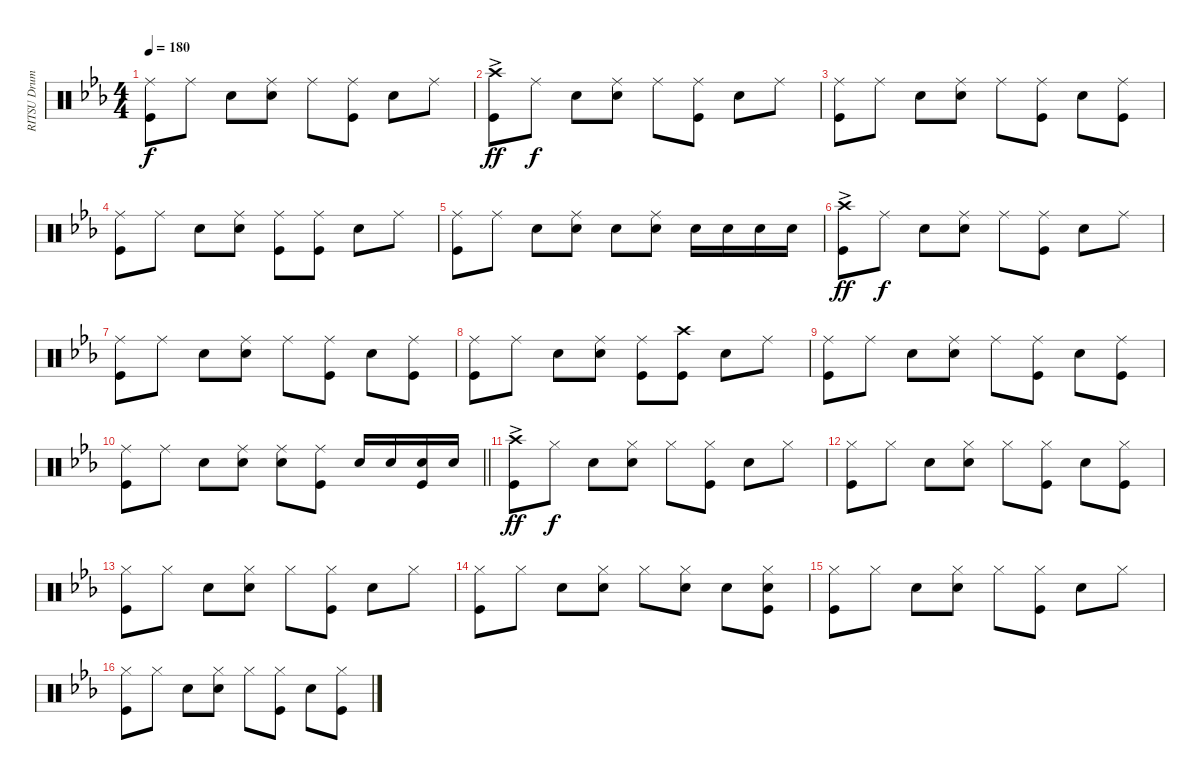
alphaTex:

\track ("RITSU Drums" "RITSU Drum") {instrument percussion}
\staff {score}
\articulation defaults
\ts (4 4)
\tempo 180
\clef neutral
\ks cminor
("Ride (middle)" "Kick (hit)").8{dy f} "Ride (middle)".8 "Snare (hit) 2".8 ("Snare (hit) 2" "Ride (middle)").8 "Ride (middle)".8 ("Ride (middle)" "Kick (hit)").8 "Snare (hit) 2".8 "Ride (middle)".8 |
("Crash high (hit)"{ac} "Kick (hit)").8{dy ff} "Ride (middle)".8{dy f} "Snare (hit) 2".8 ("Snare (hit) 2" "Ride (middle)").8 "Ride (middle)".8 ("Ride (middle)" "Kick (hit)").8 "Snare (hit) 2".8 "Ride (middle)".8 |
("Ride (middle)" "Kick (hit)").8 "Ride (middle)".8 "Snare (hit) 2".8 ("Snare (hit) 2" "Ride (middle)").8 "Ride (middle)".8 ("Ride (middle)" "Kick (hit)").8 "Snare (hit) 2".8 ("Ride (middle)" "Kick (hit)").8 |
("Kick (hit)" "Ride (middle)").8 "Ride (middle)".8 "Snare (hit) 2".8 ("Snare (hit) 2" "Ride (middle)").8 ("Ride (middle)" "Kick (hit)").8 ("Ride (middle)" "Kick (hit)").8 "Snare (hit) 2".8 "Ride (middle)".8 |
("Kick (hit)" "Ride (middle)").8 "Ride (middle)".8 "Snare (hit) 2".8 ("Snare (hit) 2" "Ride (middle)").8 "Snare (hit) 2".8 ("Snare (hit) 2" "Ride (middle)").8 "Snare (hit) 2".16 "Snare (hit) 2".16 "Snare (hit) 2".16 "Snare (hit) 2".16 |
("Crash high (hit)"{ac} "Kick (hit)").8{dy ff} "Ride (middle)".8{dy f} "Snare (hit) 2".8 ("Snare (hit) 2" "Ride (middle)").8 "Ride (middle)".8 ("Ride (middle)" "Kick (hit)").8 "Snare (hit) 2".8 "Ride (middle)".8 |
("Ride (middle)" "Kick (hit)").8 "Ride (middle)".8 "Snare (hit) 2".8 ("Ride (middle)" "Snare (hit) 2").8 "Ride (middle)".8 ("Ride (middle)" "Kick (hit)").8 "Snare (hit) 2".8 ("Ride (middle)" "Kick (hit)").8 |
("Ride (middle)" "Kick (hit)").8 "Ride (middle)".8 "Snare (hit) 2".8 ("Snare (hit) 2" "Ride (middle)").8 ("Ride (middle)" "Kick (hit)").8 ("Kick (hit)" "Crash high (hit)").8 "Snare (hit) 2".8 "Ride (middle)".8 |
("Ride (middle)" "Kick (hit)").8 "Ride (middle)".8 "Snare (hit) 2".8 ("Ride (middle)" "Snare (hit) 2").8 "Ride (middle)".8 ("Ride (middle)" "Kick (hit)").8 "Snare (hit) 2".8 ("Ride (middle)" "Kick (hit)").8 |
\barLineRight lightlight
("Ride (middle)" "Kick (hit)").8 "Ride (middle)".8 "Snare (hit) 2".8 ("Snare (hit) 2" "Ride (middle)").8 ("Ride (middle)" "Snare (hit) 2").8 ("Ride (middle)" "Kick (hit)").8 "Snare (hit) 2".16 "Snare (hit) 2".16 ("Snare (hit) 2" "Kick (hit)").16 "Snare (hit) 2".16 |
("Crash high (hit)"{ac} "Kick (hit)").8{dy ff} "Hi-Hat (closed)".8{dy f} "Snare (hit) 2".8 ("Snare (hit) 2" "Hi-Hat (closed)").8 "Hi-Hat (closed)".8 ("Hi-Hat (closed)" "Kick (hit)").8 "Snare (hit) 2".8 "Hi-Hat (closed)".8 |
("Hi-Hat (closed)" "Kick (hit)").8 "Hi-Hat (closed)".8 "Snare (hit) 2".8 ("Snare (hit) 2" "Hi-Hat (closed)").8 "Hi-Hat (closed)".8 ("Hi-Hat (closed)" "Kick (hit)").8 "Snare (hit) 2".8 ("Kick (hit)" "Hi-Hat (closed)").8 |
("Hi-Hat (closed)" "Kick (hit)").8 "Hi-Hat (closed)".8 "Snare (hit) 2".8 ("Snare (hit) 2" "Hi-Hat (closed)").8 "Hi-Hat (closed)".8 ("Hi-Hat (closed)" "Kick (hit)").8 "Snare (hit) 2".8 "Hi-Hat (closed)".8 |
("Hi-Hat (closed)" "Kick (hit)").8 "Hi-Hat (closed)".8 "Snare (hit) 2".8 ("Snare (hit) 2" "Hi-Hat (closed)").8 "Hi-Hat (closed)".8 ("Hi-Hat (closed)" "Snare (hit) 2").8 "Snare (hit) 2".8 ("Snare (hit) 2" "Hi-Hat (closed)" "Kick (hit)").8 |
("Kick (hit)" "Hi-Hat (closed)").8 "Hi-Hat (closed)".8 "Snare (hit) 2".8 ("Hi-Hat (closed)" "Snare (hit) 2").8 "Hi-Hat (closed)".8 ("Hi-Hat (closed)" "Kick (hit)").8 "Snare (hit) 2".8 "Hi-Hat (closed)".8 |
("Hi-Hat (closed)" "Kick (hit)").8 "Hi-Hat (closed)".8 "Snare (hit) 2".8 ("Snare (hit) 2" "Hi-Hat (closed)").8 "Hi-Hat (closed)".8 ("Hi-Hat (closed)" "Kick (hit)").8 "Snare (hit) 2".8 ("Hi-Hat (closed)" "Kick (hit)").8
